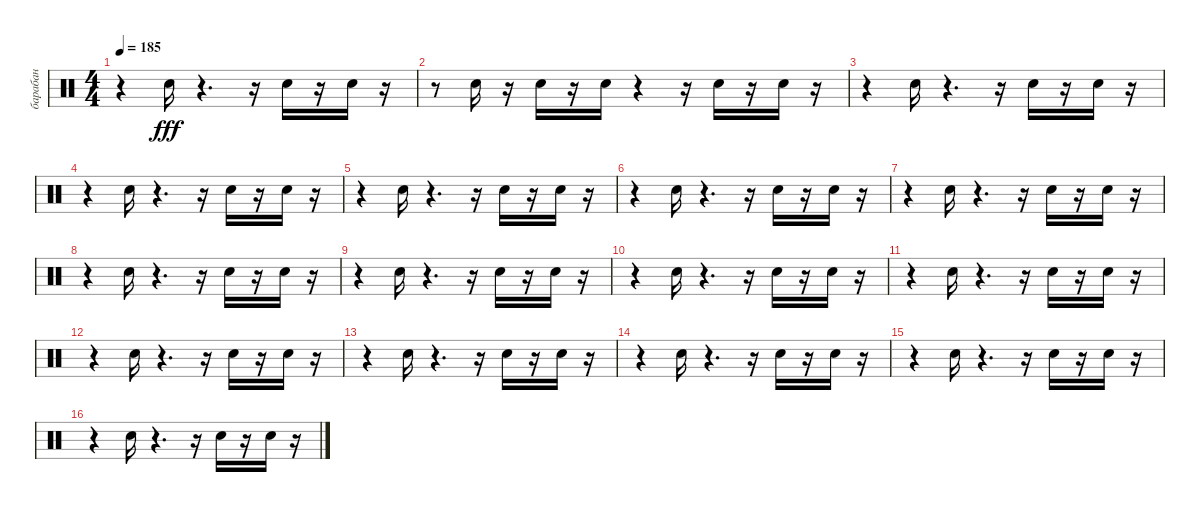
\track ("барабан" "барабан") {instrument percussion}
\staff {score}
\articulation defaults
\ts (4 4)
\tempo 185
\clef neutral
\ks c
r.4{dy fff} "Snare (hit) 2".16 r.4{d} r.16 "Snare (hit) 2".16 r.16 "Snare (hit) 2".16 r.16 |
r.8 "Snare (hit) 2".16 r.16 "Snare (hit) 2".16 r.16 "Snare (hit) 2".16 r.4 r.16 "Snare (hit) 2".16 r.16 "Snare (hit) 2".16 r.16 |
r.4 "Snare (hit) 2".16 r.4{d} r.16 "Snare (hit) 2".16 r.16 "Snare (hit) 2".16 r.16 |
r.4 "Snare (hit) 2".16 r.4{d} r.16 "Snare (hit) 2".16 r.16 "Snare (hit) 2".16 r.16 |
r.4 "Snare (hit) 2".16 r.4{d} r.16 "Snare (hit) 2".16 r.16 "Snare (hit) 2".16 r.16 |
r.4 "Snare (hit) 2".16 r.4{d} r.16 "Snare (hit) 2".16 r.16 "Snare (hit) 2".16 r.16 |
r.4 "Snare (hit) 2".16 r.4{d} r.16 "Snare (hit) 2".16 r.16 "Snare (hit) 2".16 r.16 |
r.4 "Snare (hit) 2".16 r.4{d} r.16 "Snare (hit) 2".16 r.16 "Snare (hit) 2".16 r.16 |
r.4 "Snare (hit) 2".16 r.4{d} r.16 "Snare (hit) 2".16 r.16 "Snare (hit) 2".16 r.16 |
r.4 "Snare (hit) 2".16 r.4{d} r.16 "Snare (hit) 2".16 r.16 "Snare (hit) 2".16 r.16 |
r.4 "Snare (hit) 2".16 r.4{d} r.16 "Snare (hit) 2".16 r.16 "Snare (hit) 2".16 r.16 |
r.4 "Snare (hit) 2".16 r.4{d} r.16 "Snare (hit) 2".16 r.16 "Snare (hit) 2".16 r.16 |
r.4 "Snare (hit) 2".16 r.4{d} r.16 "Snare (hit) 2".16 r.16 "Snare (hit) 2".16 r.16 |
r.4 "Snare (hit) 2".16 r.4{d} r.16 "Snare (hit) 2".16 r.16 "Snare (hit) 2".16 r.16 |
r.4 "Snare (hit) 2".16 r.4{d} r.16 "Snare (hit) 2".16 r.16 "Snare (hit) 2".16 r.16 |
r.4 "Snare (hit) 2".16 r.4{d} r.16 "Snare (hit) 2".16 r.16 "Snare (hit) 2".16 r.16
